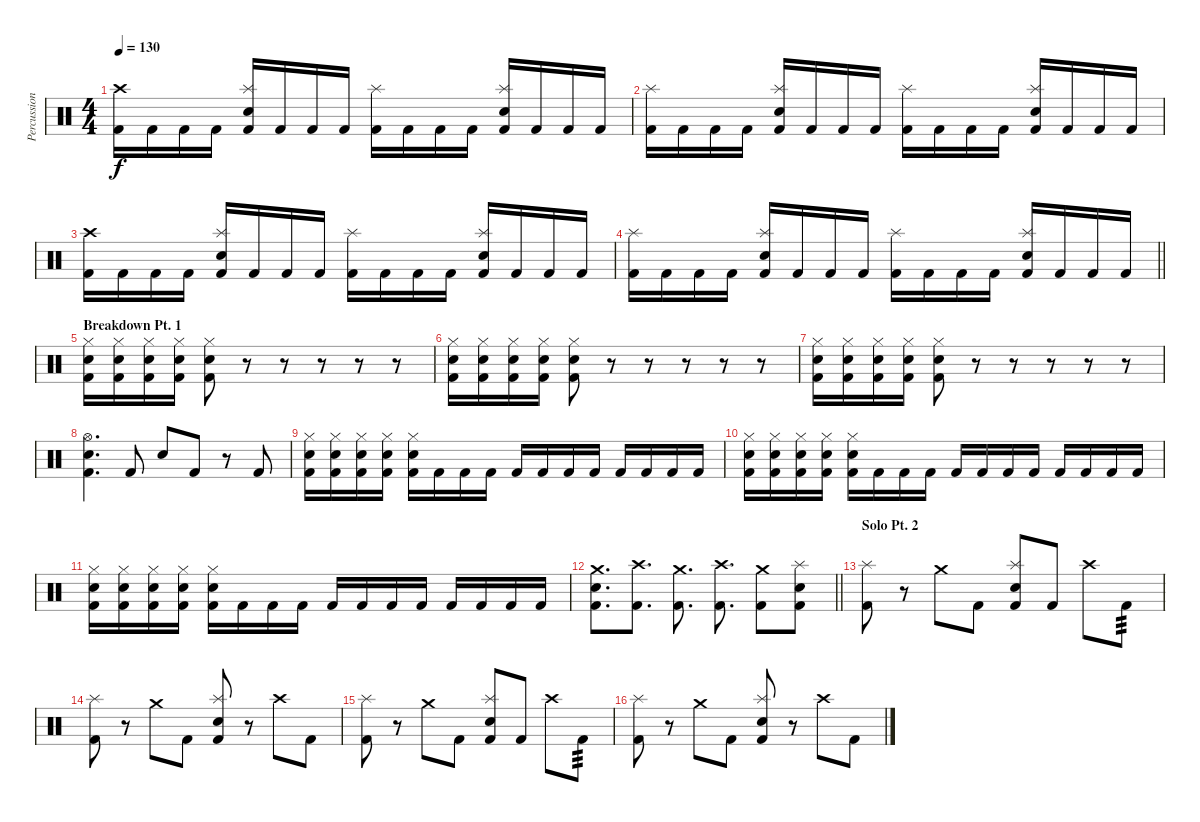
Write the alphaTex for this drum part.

\track ("Percussion" "Percussion") {instrument percussion}
\staff {score}
\articulation defaults
\ts (4 4)
\tempo 130
\clef neutral
\ks c
("Crash high (hit)" "Kick (hit) 2").16{dy f} "Kick (hit) 2".16 "Kick (hit) 2".16 "Kick (hit) 2".16 ("Splash (hit)" "Electric Snare (hit)" "Kick (hit) 2").16 "Kick (hit) 2".16 "Kick (hit) 2".16 "Kick (hit) 2".16 ("Splash (hit)" "Kick (hit) 2").16 "Kick (hit) 2".16 "Kick (hit) 2".16 "Kick (hit) 2".16 ("Splash (hit)" "Electric Snare (hit)" "Kick (hit) 2").16 "Kick (hit) 2".16 "Kick (hit) 2".16 "Kick (hit) 2".16 |
("Splash (hit)" "Kick (hit) 2").16 "Kick (hit) 2".16 "Kick (hit) 2".16 "Kick (hit) 2".16 ("Splash (hit)" "Electric Snare (hit)" "Kick (hit) 2").16 "Kick (hit) 2".16 "Kick (hit) 2".16 "Kick (hit) 2".16 ("Splash (hit)" "Kick (hit) 2").16 "Kick (hit) 2".16 "Kick (hit) 2".16 "Kick (hit) 2".16 ("Splash (hit)" "Electric Snare (hit)" "Kick (hit) 2").16 "Kick (hit) 2".16 "Kick (hit) 2".16 "Kick (hit) 2".16 |
("Crash high (hit)" "Kick (hit) 2").16 "Kick (hit) 2".16 "Kick (hit) 2".16 "Kick (hit) 2".16 ("Splash (hit)" "Electric Snare (hit)" "Kick (hit) 2").16 "Kick (hit) 2".16 "Kick (hit) 2".16 "Kick (hit) 2".16 ("Splash (hit)" "Kick (hit) 2").16 "Kick (hit) 2".16 "Kick (hit) 2".16 "Kick (hit) 2".16 ("Splash (hit)" "Electric Snare (hit)" "Kick (hit) 2").16 "Kick (hit) 2".16 "Kick (hit) 2".16 "Kick (hit) 2".16 |
\barLineRight lightlight
("Splash (hit)" "Kick (hit) 2").16 "Kick (hit) 2".16 "Kick (hit) 2".16 "Kick (hit) 2".16 ("Splash (hit)" "Electric Snare (hit)" "Kick (hit) 2").16 "Kick (hit) 2".16 "Kick (hit) 2".16 "Kick (hit) 2".16 ("Splash (hit)" "Kick (hit) 2").16 "Kick (hit) 2".16 "Kick (hit) 2".16 "Kick (hit) 2".16 ("Splash (hit)" "Electric Snare (hit)" "Kick (hit) 2").16 "Kick (hit) 2".16 "Kick (hit) 2".16 "Kick (hit) 2".16 |
\section ("" "Breakdown Pt. 1")
("Hi-Hat (closed)" "Electric Snare (hit)" "Kick (hit) 2").16 ("Hi-Hat (closed)" "Electric Snare (hit)" "Kick (hit) 2").16 ("Hi-Hat (closed)" "Electric Snare (hit)" "Kick (hit) 2").16 ("Hi-Hat (closed)" "Electric Snare (hit)" "Kick (hit) 2").16 ("Hi-Hat (closed)" "Electric Snare (hit)" "Kick (hit) 2").8 r.8 r.8 r.8 r.8 r.8 |
("Hi-Hat (closed)" "Electric Snare (hit)" "Kick (hit) 2").16 ("Hi-Hat (closed)" "Electric Snare (hit)" "Kick (hit) 2").16 ("Hi-Hat (closed)" "Electric Snare (hit)" "Kick (hit) 2").16 ("Hi-Hat (closed)" "Electric Snare (hit)" "Kick (hit) 2").16 ("Hi-Hat (closed)" "Electric Snare (hit)" "Kick (hit) 2").8 r.8 r.8 r.8 r.8 r.8 |
("Hi-Hat (closed)" "Electric Snare (hit)" "Kick (hit) 2").16 ("Hi-Hat (closed)" "Electric Snare (hit)" "Kick (hit) 2").16 ("Hi-Hat (closed)" "Electric Snare (hit)" "Kick (hit) 2").16 ("Hi-Hat (closed)" "Electric Snare (hit)" "Kick (hit) 2").16 ("Hi-Hat (closed)" "Electric Snare (hit)" "Kick (hit) 2").8 r.8 r.8 r.8 r.8 r.8 |
("Hi-Hat (open)" "Electric Snare (hit)" "Kick (hit) 2").4{d} "Kick (hit) 2".8 "Electric Snare (hit)".8 "Kick (hit) 2".8 r.8 "Kick (hit) 2".8 |
("Hi-Hat (closed)" "Electric Snare (hit)" "Kick (hit) 2").16 ("Hi-Hat (closed)" "Electric Snare (hit)" "Kick (hit) 2").16 ("Hi-Hat (closed)" "Electric Snare (hit)" "Kick (hit) 2").16 ("Hi-Hat (closed)" "Electric Snare (hit)" "Kick (hit) 2").16 ("Hi-Hat (closed)" "Electric Snare (hit)" "Kick (hit) 2").16 "Kick (hit) 2".16 "Kick (hit) 2".16 "Kick (hit) 2".16 "Kick (hit) 2".16 "Kick (hit) 2".16 "Kick (hit) 2".16 "Kick (hit) 2".16 "Kick (hit) 2".16 "Kick (hit) 2".16 "Kick (hit) 2".16 "Kick (hit) 2".16 |
("Hi-Hat (closed)" "Electric Snare (hit)" "Kick (hit) 2").16 ("Hi-Hat (closed)" "Electric Snare (hit)" "Kick (hit) 2").16 ("Hi-Hat (closed)" "Electric Snare (hit)" "Kick (hit) 2").16 ("Hi-Hat (closed)" "Electric Snare (hit)" "Kick (hit) 2").16 ("Hi-Hat (closed)" "Electric Snare (hit)" "Kick (hit) 2").16 "Kick (hit) 2".16 "Kick (hit) 2".16 "Kick (hit) 2".16 "Kick (hit) 2".16 "Kick (hit) 2".16 "Kick (hit) 2".16 "Kick (hit) 2".16 "Kick (hit) 2".16 "Kick (hit) 2".16 "Kick (hit) 2".16 "Kick (hit) 2".16 |
("Hi-Hat (closed)" "Electric Snare (hit)" "Kick (hit) 2").16 ("Hi-Hat (closed)" "Electric Snare (hit)" "Kick (hit) 2").16 ("Hi-Hat (closed)" "Electric Snare (hit)" "Kick (hit) 2").16 ("Hi-Hat (closed)" "Electric Snare (hit)" "Kick (hit) 2").16 ("Hi-Hat (closed)" "Electric Snare (hit)" "Kick (hit) 2").16 "Kick (hit) 2".16 "Kick (hit) 2".16 "Kick (hit) 2".16 "Kick (hit) 2".16 "Kick (hit) 2".16 "Kick (hit) 2".16 "Kick (hit) 2".16 "Kick (hit) 2".16 "Kick (hit) 2".16 "Kick (hit) 2".16 "Kick (hit) 2".16 |
\barLineRight lightlight
("Crash medium (hit)" "Electric Snare (hit)" "Kick (hit) 2").8{d} ("Crash high (hit)" "Kick (hit) 2").8{d} ("Crash medium (hit)" "Kick (hit) 2").8{d} ("Crash high (hit)" "Kick (hit) 2").8{d} ("Crash medium (hit)" "Kick (hit) 2").8 ("Splash (hit)" "Electric Snare (hit)" "Kick (hit) 2").8 |
\section ("" "Solo Pt. 2")
("Splash (hit)" "Kick (hit) 2").8 r.8 "Crash medium (hit)".8 "Kick (hit) 2".8 ("Splash (hit)" "Electric Snare (hit)" "Kick (hit) 2").8 "Kick (hit) 2".8 "Crash high (hit)".8 "Kick (hit) 2".8{tp 3} |
("Splash (hit)" "Kick (hit) 2").8 r.8 "Crash medium (hit)".8 "Kick (hit) 2".8 ("Splash (hit)" "Electric Snare (hit)" "Kick (hit) 2").8 r.8 "Crash high (hit)".8 "Kick (hit) 2".8 |
("Splash (hit)" "Kick (hit) 2").8 r.8 "Crash medium (hit)".8 "Kick (hit) 2".8 ("Splash (hit)" "Electric Snare (hit)" "Kick (hit) 2").8 "Kick (hit) 2".8 "Crash high (hit)".8 "Kick (hit) 2".8{tp 3} |
("Splash (hit)" "Kick (hit) 2").8 r.8 "Crash medium (hit)".8 "Kick (hit) 2".8 ("Splash (hit)" "Electric Snare (hit)" "Kick (hit) 2").8 r.8 "Crash high (hit)".8 "Kick (hit) 2".8
